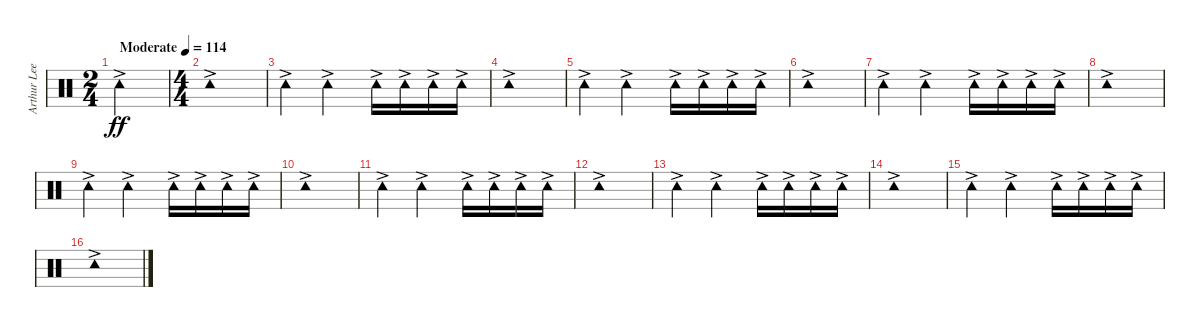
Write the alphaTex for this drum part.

\track ("Arthur Lee" "Arthur Lee") {instrument percussion}
\staff {score}
\articulation defaults
\ts (2 4)
\tempo (114 "Moderate")
\clef neutral
\ks c "Tambourine (hit)"{ac}.2{dy ff}
|
\ts (4 4)
"Tambourine (hit)"{ac}.1 |
"Tambourine (hit)"{ac}.4 "Tambourine (hit)"{ac}.2 "Tambourine (hit)"{ac}.16 "Tambourine (hit)"{ac}.16 "Tambourine (hit)"{ac}.16 "Tambourine (hit)"{ac}.16 |
"Tambourine (hit)"{ac}.1 |
"Tambourine (hit)"{ac}.4 "Tambourine (hit)"{ac}.2 "Tambourine (hit)"{ac}.16 "Tambourine (hit)"{ac}.16 "Tambourine (hit)"{ac}.16 "Tambourine (hit)"{ac}.16 |
"Tambourine (hit)"{ac}.1 |
"Tambourine (hit)"{ac}.4 "Tambourine (hit)"{ac}.2 "Tambourine (hit)"{ac}.16 "Tambourine (hit)"{ac}.16 "Tambourine (hit)"{ac}.16 "Tambourine (hit)"{ac}.16 |
"Tambourine (hit)"{ac}.1 |
"Tambourine (hit)"{ac}.4 "Tambourine (hit)"{ac}.2 "Tambourine (hit)"{ac}.16 "Tambourine (hit)"{ac}.16 "Tambourine (hit)"{ac}.16 "Tambourine (hit)"{ac}.16 |
"Tambourine (hit)"{ac}.1 |
"Tambourine (hit)"{ac}.4 "Tambourine (hit)"{ac}.2 "Tambourine (hit)"{ac}.16 "Tambourine (hit)"{ac}.16 "Tambourine (hit)"{ac}.16 "Tambourine (hit)"{ac}.16 |
"Tambourine (hit)"{ac}.1 |
"Tambourine (hit)"{ac}.4 "Tambourine (hit)"{ac}.2 "Tambourine (hit)"{ac}.16 "Tambourine (hit)"{ac}.16 "Tambourine (hit)"{ac}.16 "Tambourine (hit)"{ac}.16 |
"Tambourine (hit)"{ac}.1 |
"Tambourine (hit)"{ac}.4 "Tambourine (hit)"{ac}.2 "Tambourine (hit)"{ac}.16 "Tambourine (hit)"{ac}.16 "Tambourine (hit)"{ac}.16 "Tambourine (hit)"{ac}.16 |
"Tambourine (hit)"{ac}.1
